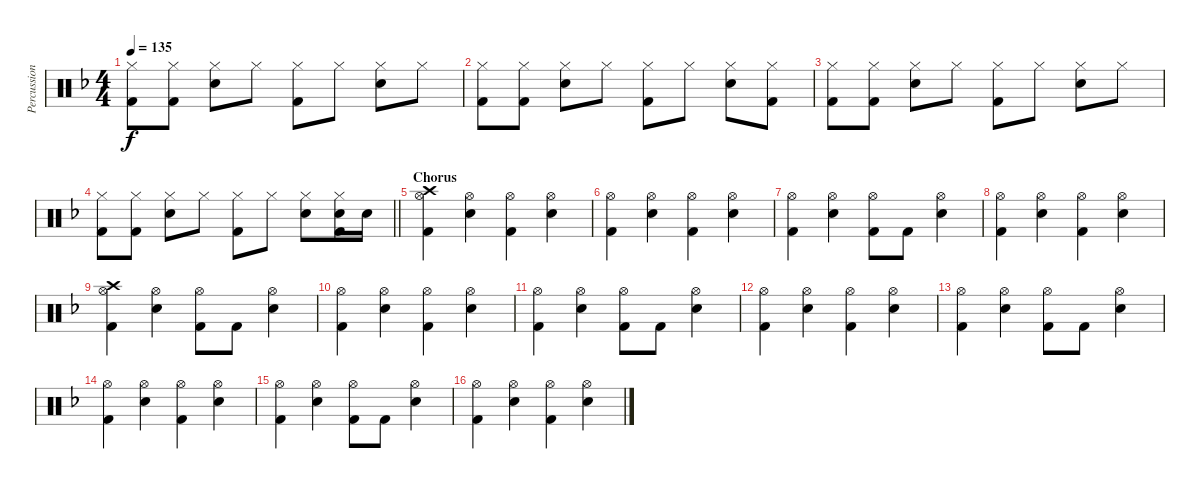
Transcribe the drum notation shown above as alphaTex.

\track ("Percussion" "Percussion") {instrument percussion}
\staff {score}
\articulation defaults
\ts (4 4)
\tempo 135
\clef neutral
\ks f
("Hi-Hat (closed)" "Kick (hit) 2").8{dy f} ("Hi-Hat (closed)" "Kick (hit) 2").8 ("Hi-Hat (closed)" "Snare (hit) 2").8 "Hi-Hat (closed)".8 ("Hi-Hat (closed)" "Kick (hit) 2").8 "Hi-Hat (closed)".8 ("Hi-Hat (closed)" "Snare (hit) 2").8 "Hi-Hat (closed)".8 |
("Hi-Hat (closed)" "Kick (hit) 2").8 ("Hi-Hat (closed)" "Kick (hit) 2").8 ("Hi-Hat (closed)" "Snare (hit) 2").8 "Hi-Hat (closed)".8 ("Hi-Hat (closed)" "Kick (hit) 2").8 "Hi-Hat (closed)".8 ("Hi-Hat (closed)" "Snare (hit) 2").8 ("Hi-Hat (closed)" "Kick (hit) 2").8 |
("Hi-Hat (closed)" "Kick (hit) 2").8 ("Hi-Hat (closed)" "Kick (hit) 2").8 ("Hi-Hat (closed)" "Snare (hit) 2").8 "Hi-Hat (closed)".8 ("Hi-Hat (closed)" "Kick (hit) 2").8 "Hi-Hat (closed)".8 ("Hi-Hat (closed)" "Snare (hit) 2").8 "Hi-Hat (closed)".8 |
\barLineRight lightlight
("Hi-Hat (closed)" "Kick (hit) 2").8 ("Hi-Hat (closed)" "Kick (hit) 2").8 ("Hi-Hat (closed)" "Snare (hit) 2").8 "Hi-Hat (closed)".8 ("Hi-Hat (closed)" "Kick (hit) 2").8 "Hi-Hat (closed)".8 ("Hi-Hat (closed)" "Snare (hit) 2").8 ("Hi-Hat (closed)" "Snare (hit) 2" "Kick (hit) 2").16 "Snare (hit) 2".16 |
\section ("" "Chorus")
("Crash high (hit)" "Hi-Hat (open)" "Kick (hit) 2").4 ("Hi-Hat (open)" "Snare (hit) 2").4 ("Hi-Hat (open)" "Kick (hit) 2").4 ("Hi-Hat (open)" "Snare (hit) 2").4 |
("Hi-Hat (open)" "Kick (hit) 2").4 ("Hi-Hat (open)" "Snare (hit) 2").4 ("Hi-Hat (open)" "Kick (hit) 2").4 ("Hi-Hat (open)" "Snare (hit) 2").4 |
("Hi-Hat (open)" "Kick (hit) 2").4 ("Hi-Hat (open)" "Snare (hit) 2").4 ("Hi-Hat (open)" "Kick (hit) 2").8 "Kick (hit) 2".8 ("Hi-Hat (open)" "Snare (hit) 2").4 |
("Hi-Hat (open)" "Kick (hit) 2").4 ("Hi-Hat (open)" "Snare (hit) 2").4 ("Hi-Hat (open)" "Kick (hit) 2").4 ("Hi-Hat (open)" "Snare (hit) 2").4 |
("Crash high (hit)" "Hi-Hat (open)" "Kick (hit) 2").4 ("Hi-Hat (open)" "Snare (hit) 2").4 ("Hi-Hat (open)" "Kick (hit) 2").8 "Kick (hit) 2".8 ("Hi-Hat (open)" "Snare (hit) 2").4 |
("Hi-Hat (open)" "Kick (hit) 2").4 ("Hi-Hat (open)" "Snare (hit) 2").4 ("Hi-Hat (open)" "Kick (hit) 2").4 ("Hi-Hat (open)" "Snare (hit) 2").4 |
("Hi-Hat (open)" "Kick (hit) 2").4 ("Hi-Hat (open)" "Snare (hit) 2").4 ("Hi-Hat (open)" "Kick (hit) 2").8 "Kick (hit) 2".8 ("Hi-Hat (open)" "Snare (hit) 2").4 |
("Hi-Hat (open)" "Kick (hit) 2").4 ("Hi-Hat (open)" "Snare (hit) 2").4 ("Hi-Hat (open)" "Kick (hit) 2").4 ("Hi-Hat (open)" "Snare (hit) 2").4 |
("Hi-Hat (open)" "Kick (hit) 2").4 ("Hi-Hat (open)" "Snare (hit) 2").4 ("Hi-Hat (open)" "Kick (hit) 2").8 "Kick (hit) 2".8 ("Hi-Hat (open)" "Snare (hit) 2").4 |
("Hi-Hat (open)" "Kick (hit) 2").4 ("Hi-Hat (open)" "Snare (hit) 2").4 ("Hi-Hat (open)" "Kick (hit) 2").4 ("Hi-Hat (open)" "Snare (hit) 2").4 |
("Hi-Hat (open)" "Kick (hit) 2").4 ("Hi-Hat (open)" "Snare (hit) 2").4 ("Hi-Hat (open)" "Kick (hit) 2").8 "Kick (hit) 2".8 ("Hi-Hat (open)" "Snare (hit) 2").4 |
("Hi-Hat (open)" "Kick (hit) 2").4 ("Hi-Hat (open)" "Snare (hit) 2").4 ("Hi-Hat (open)" "Kick (hit) 2").4 ("Hi-Hat (open)" "Snare (hit) 2").4
